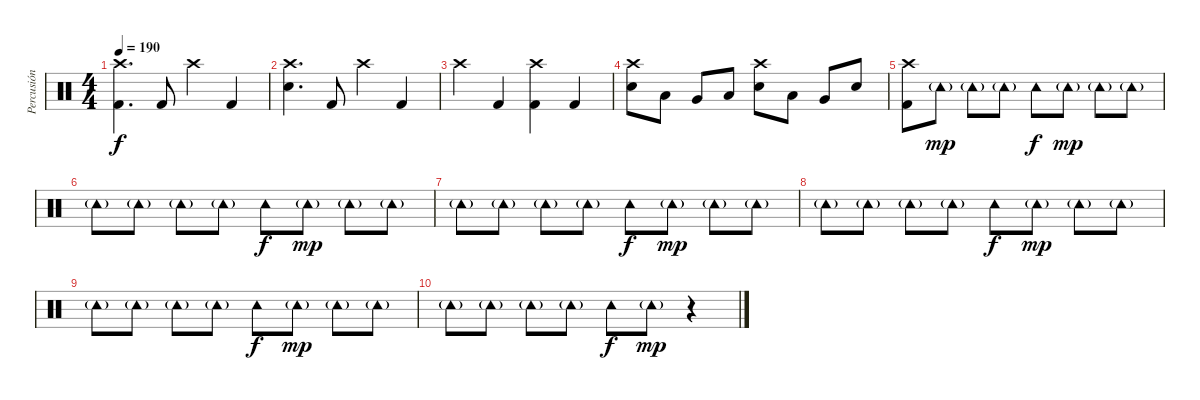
\track ("Percusión" "Percusión") {instrument percussion}
\staff {score}
\articulation defaults
\ts (4 4)
\tempo 190
\clef neutral
\ks c
("Crash high (hit)" "Kick (hit) 2").4{d dy f} "Kick (hit) 2".8 "Crash high (hit)".4 "Kick (hit) 2".4 |
("Crash high (hit)" "Electric Snare (hit)").4{d} "Kick (hit) 2".8 "Crash high (hit)".4 "Kick (hit) 2".4 |
"Crash high (hit)".4 "Kick (hit) 2".4 ("Crash high (hit)" "Kick (hit) 2").4 "Kick (hit) 2".4 |
("Crash high (hit)" "Electric Snare (hit)").8 "Low Tom (hit)".8 "Very Low Tom (hit)".8 "Low Floor Tom (hit)".8 ("Crash high (hit)" "Electric Snare (hit)").8 "Low Tom (hit)".8 "Very Low Tom (hit)".8 "Electric Snare (hit)".8 |
("Crash high (hit)" "Kick (hit) 2").8 "Tambourine (hit)"{g}.8{dy mp} "Tambourine (hit)"{g}.8 "Tambourine (hit)"{g}.8 "Tambourine (hit)".8{dy f} "Tambourine (hit)"{g}.8{dy mp} "Tambourine (hit)"{g}.8 "Tambourine (hit)"{g}.8 |
"Tambourine (hit)"{g}.8 "Tambourine (hit)"{g}.8 "Tambourine (hit)"{g}.8 "Tambourine (hit)"{g}.8 "Tambourine (hit)".8{dy f} "Tambourine (hit)"{g}.8{dy mp} "Tambourine (hit)"{g}.8 "Tambourine (hit)"{g}.8 |
"Tambourine (hit)"{g}.8 "Tambourine (hit)"{g}.8 "Tambourine (hit)"{g}.8 "Tambourine (hit)"{g}.8 "Tambourine (hit)".8{dy f} "Tambourine (hit)"{g}.8{dy mp} "Tambourine (hit)"{g}.8 "Tambourine (hit)"{g}.8 |
"Tambourine (hit)"{g}.8 "Tambourine (hit)"{g}.8 "Tambourine (hit)"{g}.8 "Tambourine (hit)"{g}.8 "Tambourine (hit)".8{dy f} "Tambourine (hit)"{g}.8{dy mp} "Tambourine (hit)"{g}.8 "Tambourine (hit)"{g}.8 |
"Tambourine (hit)"{g}.8 "Tambourine (hit)"{g}.8 "Tambourine (hit)"{g}.8 "Tambourine (hit)"{g}.8 "Tambourine (hit)".8{dy f} "Tambourine (hit)"{g}.8{dy mp} "Tambourine (hit)"{g}.8 "Tambourine (hit)"{g}.8 |
"Tambourine (hit)"{g}.8 "Tambourine (hit)"{g}.8 "Tambourine (hit)"{g}.8 "Tambourine (hit)"{g}.8 "Tambourine (hit)".8{dy f} "Tambourine (hit)"{g}.8{dy mp} r.4
